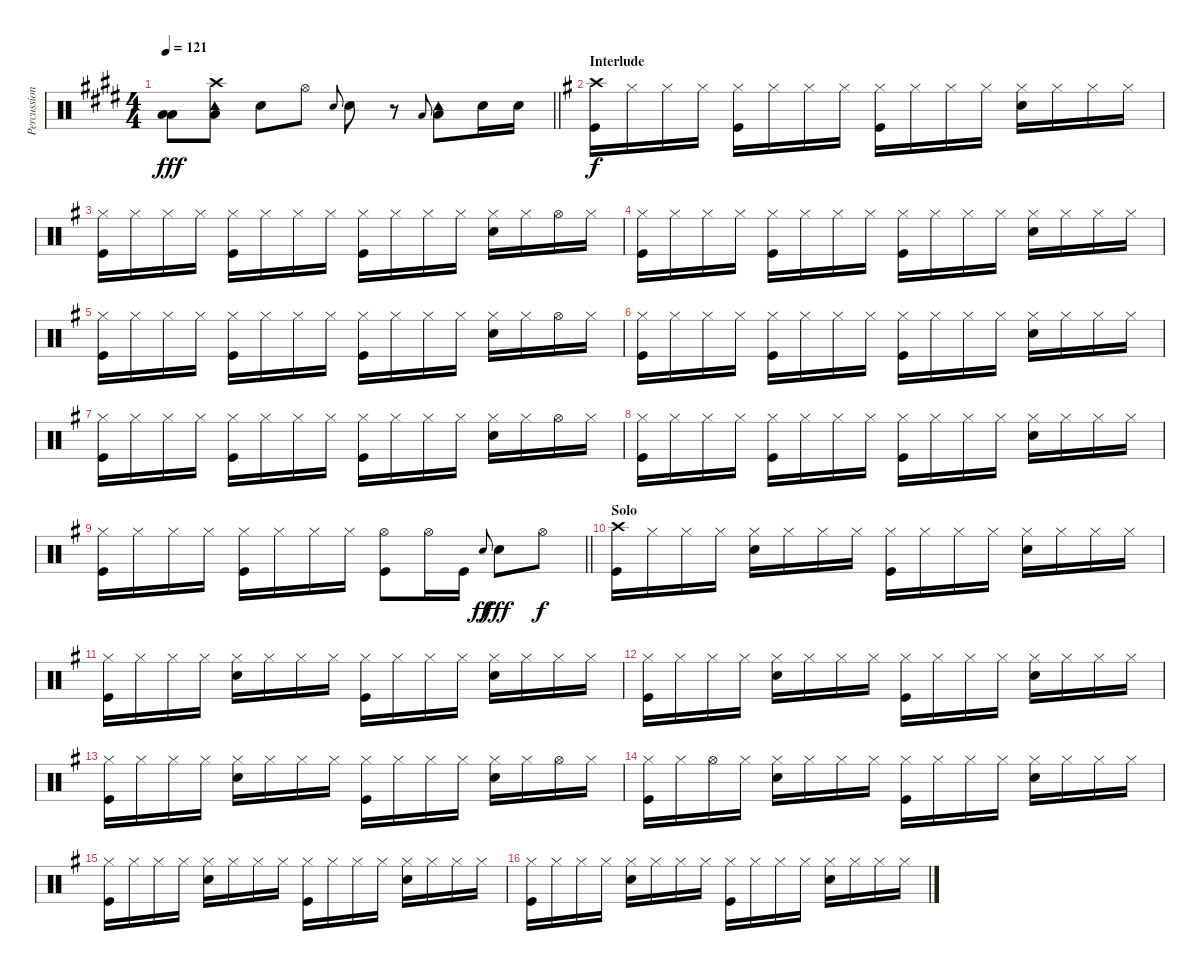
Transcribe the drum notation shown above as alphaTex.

\track ("Percussion" "Percussion") {instrument percussion}
\staff {score}
\articulation defaults
\ts (4 4)
\tempo 121
\clef neutral
\barLineRight lightlight
\ks e
("Low Floor Tom (hit)" "Low Tom (hit)").8{dy fff} ("Crash high (hit)" "Tambourine (hit)" "Low Floor Tom (hit)").8 "Snare (hit) 2".8 "Hi-Hat (open)".8 "Snare (hit) 2".8{gr onbeat} "Snare (hit) 2".8 r.8 "Low Floor Tom (hit)".8{gr onbeat} ("Tambourine (hit)" "Low Floor Tom (hit)").8 "Snare (hit) 2".16 "Snare (hit) 2".16 |
\section ("" "Interlude")
\ks g
("Crash high (hit)" "Kick (hit)").16{dy f} "Hi-Hat (closed)".16 "Hi-Hat (closed)".16 "Hi-Hat (closed)".16 ("Hi-Hat (closed)" "Kick (hit)").16 "Hi-Hat (closed)".16 "Hi-Hat (closed)".16 "Hi-Hat (closed)".16 ("Hi-Hat (closed)" "Kick (hit)").16 "Hi-Hat (closed)".16 "Hi-Hat (closed)".16 "Hi-Hat (closed)".16 ("Hi-Hat (closed)" "Snare (hit) 2").16 "Hi-Hat (closed)".16 "Hi-Hat (closed)".16 "Hi-Hat (closed)".16 |
("Hi-Hat (closed)" "Kick (hit)").16 "Hi-Hat (closed)".16 "Hi-Hat (closed)".16 "Hi-Hat (closed)".16 ("Hi-Hat (closed)" "Kick (hit)").16 "Hi-Hat (closed)".16 "Hi-Hat (closed)".16 "Hi-Hat (closed)".16 ("Hi-Hat (closed)" "Kick (hit)").16 "Hi-Hat (closed)".16 "Hi-Hat (closed)".16 "Hi-Hat (closed)".16 ("Hi-Hat (closed)" "Snare (hit) 2").16 "Hi-Hat (closed)".16 "Hi-Hat (open)".16 "Hi-Hat (closed)".16 |
("Hi-Hat (closed)" "Kick (hit)").16 "Hi-Hat (closed)".16 "Hi-Hat (closed)".16 "Hi-Hat (closed)".16 ("Hi-Hat (closed)" "Kick (hit)").16 "Hi-Hat (closed)".16 "Hi-Hat (closed)".16 "Hi-Hat (closed)".16 ("Hi-Hat (closed)" "Kick (hit)").16 "Hi-Hat (closed)".16 "Hi-Hat (closed)".16 "Hi-Hat (closed)".16 ("Hi-Hat (closed)" "Snare (hit) 2").16 "Hi-Hat (closed)".16 "Hi-Hat (closed)".16 "Hi-Hat (closed)".16 |
("Hi-Hat (closed)" "Kick (hit)").16 "Hi-Hat (closed)".16 "Hi-Hat (closed)".16 "Hi-Hat (closed)".16 ("Hi-Hat (closed)" "Kick (hit)").16 "Hi-Hat (closed)".16 "Hi-Hat (closed)".16 "Hi-Hat (closed)".16 ("Hi-Hat (closed)" "Kick (hit)").16 "Hi-Hat (closed)".16 "Hi-Hat (closed)".16 "Hi-Hat (closed)".16 ("Hi-Hat (closed)" "Snare (hit) 2").16 "Hi-Hat (closed)".16 "Hi-Hat (open)".16 "Hi-Hat (closed)".16 |
("Hi-Hat (closed)" "Kick (hit)").16 "Hi-Hat (closed)".16 "Hi-Hat (closed)".16 "Hi-Hat (closed)".16 ("Hi-Hat (closed)" "Kick (hit)").16 "Hi-Hat (closed)".16 "Hi-Hat (closed)".16 "Hi-Hat (closed)".16 ("Hi-Hat (closed)" "Kick (hit)").16 "Hi-Hat (closed)".16 "Hi-Hat (closed)".16 "Hi-Hat (closed)".16 ("Hi-Hat (closed)" "Snare (hit) 2").16 "Hi-Hat (closed)".16 "Hi-Hat (closed)".16 "Hi-Hat (closed)".16 |
("Hi-Hat (closed)" "Kick (hit)").16 "Hi-Hat (closed)".16 "Hi-Hat (closed)".16 "Hi-Hat (closed)".16 ("Hi-Hat (closed)" "Kick (hit)").16 "Hi-Hat (closed)".16 "Hi-Hat (closed)".16 "Hi-Hat (closed)".16 ("Hi-Hat (closed)" "Kick (hit)").16 "Hi-Hat (closed)".16 "Hi-Hat (closed)".16 "Hi-Hat (closed)".16 ("Hi-Hat (closed)" "Snare (hit) 2").16 "Hi-Hat (closed)".16 "Hi-Hat (open)".16 "Hi-Hat (closed)".16 |
("Hi-Hat (closed)" "Kick (hit)").16 "Hi-Hat (closed)".16 "Hi-Hat (closed)".16 "Hi-Hat (closed)".16 ("Hi-Hat (closed)" "Kick (hit)").16 "Hi-Hat (closed)".16 "Hi-Hat (closed)".16 "Hi-Hat (closed)".16 ("Hi-Hat (closed)" "Kick (hit)").16 "Hi-Hat (closed)".16 "Hi-Hat (closed)".16 "Hi-Hat (closed)".16 ("Hi-Hat (closed)" "Snare (hit) 2").16 "Hi-Hat (closed)".16 "Hi-Hat (closed)".16 "Hi-Hat (closed)".16 |
\barLineRight lightlight
("Hi-Hat (closed)" "Kick (hit)").16 "Hi-Hat (closed)".16 "Hi-Hat (closed)".16 "Hi-Hat (closed)".16 ("Hi-Hat (closed)" "Kick (hit)").16 "Hi-Hat (closed)".16 "Hi-Hat (closed)".16 "Hi-Hat (closed)".16 ("Hi-Hat (open)" "Kick (hit)").8 "Hi-Hat (open)".16 "Kick (hit)".16 "Snare (hit) 2".8{gr onbeat dy ff} "Snare (hit) 2".8{dy fff} "Hi-Hat (open)".8{dy f} |
\section ("" "Solo")
("Crash high (hit)" "Kick (hit)").16 "Hi-Hat (closed)".16 "Hi-Hat (closed)".16 "Hi-Hat (closed)".16 ("Hi-Hat (closed)" "Snare (hit) 2").16 "Hi-Hat (closed)".16 "Hi-Hat (closed)".16 "Hi-Hat (closed)".16 ("Hi-Hat (closed)" "Kick (hit)").16 "Hi-Hat (closed)".16 "Hi-Hat (closed)".16 "Hi-Hat (closed)".16 ("Hi-Hat (closed)" "Snare (hit) 2").16 "Hi-Hat (closed)".16 "Hi-Hat (closed)".16 "Hi-Hat (closed)".16 |
("Hi-Hat (closed)" "Kick (hit)").16 "Hi-Hat (closed)".16 "Hi-Hat (closed)".16 "Hi-Hat (closed)".16 ("Hi-Hat (closed)" "Snare (hit) 2").16 "Hi-Hat (closed)".16 "Hi-Hat (closed)".16 "Hi-Hat (closed)".16 ("Hi-Hat (closed)" "Kick (hit)").16 "Hi-Hat (closed)".16 "Hi-Hat (closed)".16 "Hi-Hat (closed)".16 ("Hi-Hat (closed)" "Snare (hit) 2").16 "Hi-Hat (closed)".16 "Hi-Hat (closed)".16 "Hi-Hat (closed)".16 |
("Hi-Hat (closed)" "Kick (hit)").16 "Hi-Hat (closed)".16 "Hi-Hat (closed)".16 "Hi-Hat (closed)".16 ("Hi-Hat (closed)" "Snare (hit) 2").16 "Hi-Hat (closed)".16 "Hi-Hat (closed)".16 "Hi-Hat (closed)".16 ("Hi-Hat (closed)" "Kick (hit)").16 "Hi-Hat (closed)".16 "Hi-Hat (closed)".16 "Hi-Hat (closed)".16 ("Hi-Hat (closed)" "Snare (hit) 2").16 "Hi-Hat (closed)".16 "Hi-Hat (closed)".16 "Hi-Hat (closed)".16 |
("Hi-Hat (closed)" "Kick (hit)").16 "Hi-Hat (closed)".16 "Hi-Hat (closed)".16 "Hi-Hat (closed)".16 ("Hi-Hat (closed)" "Snare (hit) 2").16 "Hi-Hat (closed)".16 "Hi-Hat (closed)".16 "Hi-Hat (closed)".16 ("Hi-Hat (closed)" "Kick (hit)").16 "Hi-Hat (closed)".16 "Hi-Hat (closed)".16 "Hi-Hat (closed)".16 ("Hi-Hat (closed)" "Snare (hit) 2").16 "Hi-Hat (closed)".16 "Hi-Hat (open)".16 "Hi-Hat (closed)".16 |
("Hi-Hat (closed)" "Kick (hit)").16 "Hi-Hat (closed)".16 "Hi-Hat (open)".16 "Hi-Hat (closed)".16 ("Hi-Hat (closed)" "Snare (hit) 2").16 "Hi-Hat (closed)".16 "Hi-Hat (closed)".16 "Hi-Hat (closed)".16 ("Hi-Hat (closed)" "Kick (hit)").16 "Hi-Hat (closed)".16 "Hi-Hat (closed)".16 "Hi-Hat (closed)".16 ("Hi-Hat (closed)" "Snare (hit) 2").16 "Hi-Hat (closed)".16 "Hi-Hat (closed)".16 "Hi-Hat (closed)".16 |
("Hi-Hat (closed)" "Kick (hit)").16 "Hi-Hat (closed)".16 "Hi-Hat (closed)".16 "Hi-Hat (closed)".16 ("Hi-Hat (closed)" "Snare (hit) 2").16 "Hi-Hat (closed)".16 "Hi-Hat (closed)".16 "Hi-Hat (closed)".16 ("Hi-Hat (closed)" "Kick (hit)").16 "Hi-Hat (closed)".16 "Hi-Hat (closed)".16 "Hi-Hat (closed)".16 ("Hi-Hat (closed)" "Snare (hit) 2").16 "Hi-Hat (closed)".16 "Hi-Hat (closed)".16 "Hi-Hat (closed)".16 |
("Hi-Hat (closed)" "Kick (hit)").16 "Hi-Hat (closed)".16 "Hi-Hat (closed)".16 "Hi-Hat (closed)".16 ("Hi-Hat (closed)" "Snare (hit) 2").16 "Hi-Hat (closed)".16 "Hi-Hat (closed)".16 "Hi-Hat (closed)".16 ("Hi-Hat (closed)" "Kick (hit)").16 "Hi-Hat (closed)".16 "Hi-Hat (closed)".16 "Hi-Hat (closed)".16 ("Hi-Hat (closed)" "Snare (hit) 2").16 "Hi-Hat (closed)".16 "Hi-Hat (closed)".16 "Hi-Hat (closed)".16
